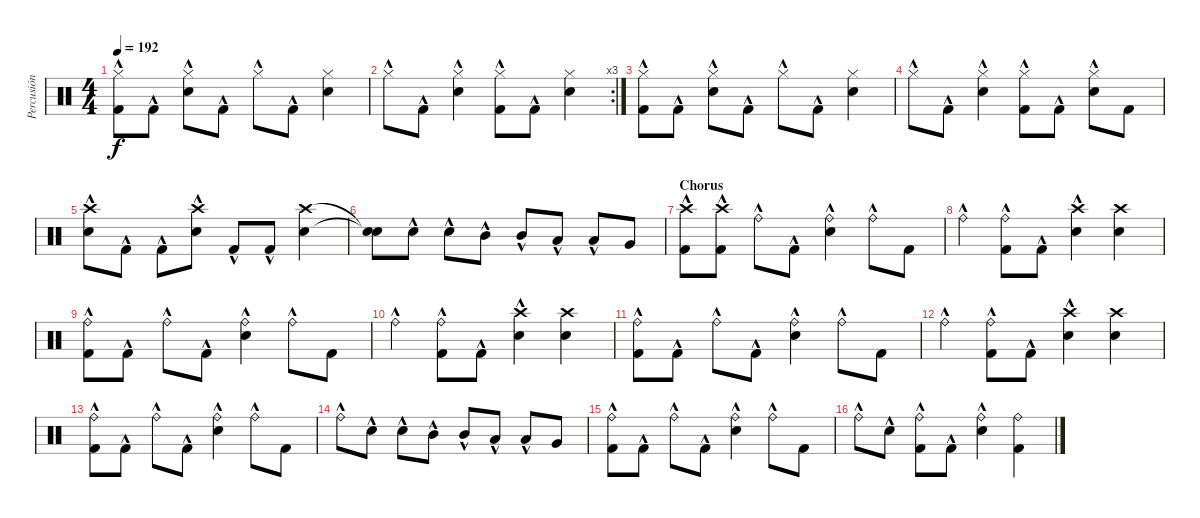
\track ("Percusión" "Percusión") {instrument percussion}
\staff {score}
\articulation defaults
\ts (4 4)
\tempo 192
\clef neutral
\ks c
("Kick (hit) 2"{hac} "Hi-Hat (closed)"{hac}).8{dy f} "Kick (hit) 2"{hac}.8 ("Hi-Hat (closed)"{hac} "Electric Snare (hit)"{hac}).8 "Kick (hit) 2"{hac}.8 "Hi-Hat (closed)"{hac}.8 "Kick (hit) 2"{hac}.8 ("Hi-Hat (closed)" "Electric Snare (hit)").4 |
\rc 3 "Hi-Hat (closed)"{hac}.8 "Kick (hit) 2"{hac}.8
("Hi-Hat (closed)"{hac} "Electric Snare (hit)"{hac}).4 ("Kick (hit) 2"{hac} "Hi-Hat (closed)"{hac}).8 "Kick (hit) 2"{hac}.8 ("Electric Snare (hit)" "Hi-Hat (closed)").4 |
("Hi-Hat (closed)"{hac} "Kick (hit) 2"{hac}).8 "Kick (hit) 2"{hac}.8 ("Hi-Hat (closed)"{hac} "Electric Snare (hit)"{hac}).8 "Kick (hit) 2"{hac}.8 "Hi-Hat (closed)"{hac}.8 "Kick (hit) 2"{hac}.8 ("Electric Snare (hit)" "Hi-Hat (closed)").4 |
"Hi-Hat (closed)"{hac}.8 "Kick (hit) 2"{hac}.8 ("Electric Snare (hit)"{hac} "Hi-Hat (closed)"{hac}).4 ("Kick (hit) 2"{hac} "Hi-Hat (closed)"{hac}).8 "Kick (hit) 2"{hac}.8 ("Electric Snare (hit)"{hac} "Hi-Hat (closed)"{hac}).8 "Kick (hit) 2".8 |
("Electric Snare (hit)"{hac} "Crash high (hit)").8 "Kick (hit) 2"{hac}.8 "Kick (hit) 2"{hac}.8 ("Crash high (hit)" "Electric Snare (hit)"{hac}).8 "Kick (hit) 2"{hac}.8 "Kick (hit) 2"{hac}.8 ("Electric Snare (hit)" "Crash high (hit)").4 |
("Snare (hit)"{t} "Snare (hit)"{t}).8 "Electric Snare (hit)"{hac}.8 "Electric Snare (hit)"{hac}.8 "Mid Tom (hit)"{hac}.8 "Mid Tom (hit)"{hac}.8 "Low Tom (hit)"{hac}.8 "Low Tom (hit)"{hac}.8 "Very Low Tom (hit)".8 |
\section ("" "Chorus")
("Kick (hit) 2"{hac} "Crash high (hit)"{hac}).8 ("Crash high (hit)"{hac} "Kick (hit) 2"{hac}).8 "Ride (bell)"{hac}.8 "Kick (hit) 2"{hac}.8 ("Electric Snare (hit)"{hac} "Ride (bell)"{hac}).4 "Ride (bell)"{hac}.8 "Kick (hit) 2".8 |
"Ride (bell)"{hac}.4 ("Kick (hit) 2"{hac} "Ride (bell)"{hac}).8 "Kick (hit) 2"{hac}.8 ("Electric Snare (hit)"{hac} "Crash high (hit)"{hac}).4 ("Electric Snare (hit)" "Crash high (hit)").4 |
("Kick (hit) 2"{hac} "Ride (bell)"{hac}).8 "Kick (hit) 2"{hac}.8 "Ride (bell)"{hac}.8 "Kick (hit) 2"{hac}.8 ("Ride (bell)"{hac} "Electric Snare (hit)"{hac}).4 "Ride (bell)"{hac}.8 "Kick (hit) 2".8 |
"Ride (bell)"{hac}.4 ("Kick (hit) 2"{hac} "Ride (bell)"{hac}).8 "Kick (hit) 2"{hac}.8 ("Electric Snare (hit)"{hac} "Crash high (hit)"{hac}).4 ("Crash high (hit)" "Electric Snare (hit)").4 |
("Kick (hit) 2"{hac} "Ride (bell)"{hac}).8 "Kick (hit) 2"{hac}.8 "Ride (bell)"{hac}.8 "Kick (hit) 2"{hac}.8 ("Ride (bell)"{hac} "Electric Snare (hit)"{hac}).4 "Ride (bell)"{hac}.8 "Kick (hit) 2".8 |
"Ride (bell)"{hac}.4 ("Ride (bell)"{hac} "Kick (hit) 2"{hac}).8 "Kick (hit) 2"{hac}.8 ("Crash high (hit)"{hac} "Electric Snare (hit)"{hac}).4 ("Crash high (hit)" "Electric Snare (hit)").4 |
("Kick (hit) 2"{hac} "Ride (bell)"{hac}).8 "Kick (hit) 2"{hac}.8 "Ride (bell)"{hac}.8 "Kick (hit) 2"{hac}.8 ("Electric Snare (hit)"{hac} "Ride (bell)"{hac}).4 "Ride (bell)"{hac}.8 "Kick (hit) 2".8 |
"Ride (bell)"{hac}.8 "Electric Snare (hit)"{hac}.8 "Electric Snare (hit)"{hac}.8 "Mid Tom (hit)"{hac}.8 "Mid Tom (hit)"{hac}.8 "Low Tom (hit)"{hac}.8 "Low Tom (hit)"{hac}.8 "Very Low Tom (hit)".8 |
("Kick (hit) 2"{hac} "Ride (bell)"{hac}).8 "Kick (hit) 2"{hac}.8 "Ride (bell)"{hac}.8 "Kick (hit) 2"{hac}.8 ("Electric Snare (hit)"{hac} "Ride (bell)"{hac}).4 "Ride (bell)"{hac}.8 "Kick (hit) 2".8 |
"Ride (bell)"{hac}.8 "Electric Snare (hit)"{hac}.8 ("Kick (hit) 2"{hac} "Ride (bell)"{hac}).8 "Kick (hit) 2"{hac}.8 ("Electric Snare (hit)"{hac} "Ride (bell)"{hac}).4 ("Kick (hit) 2" "Ride (bell)").4
